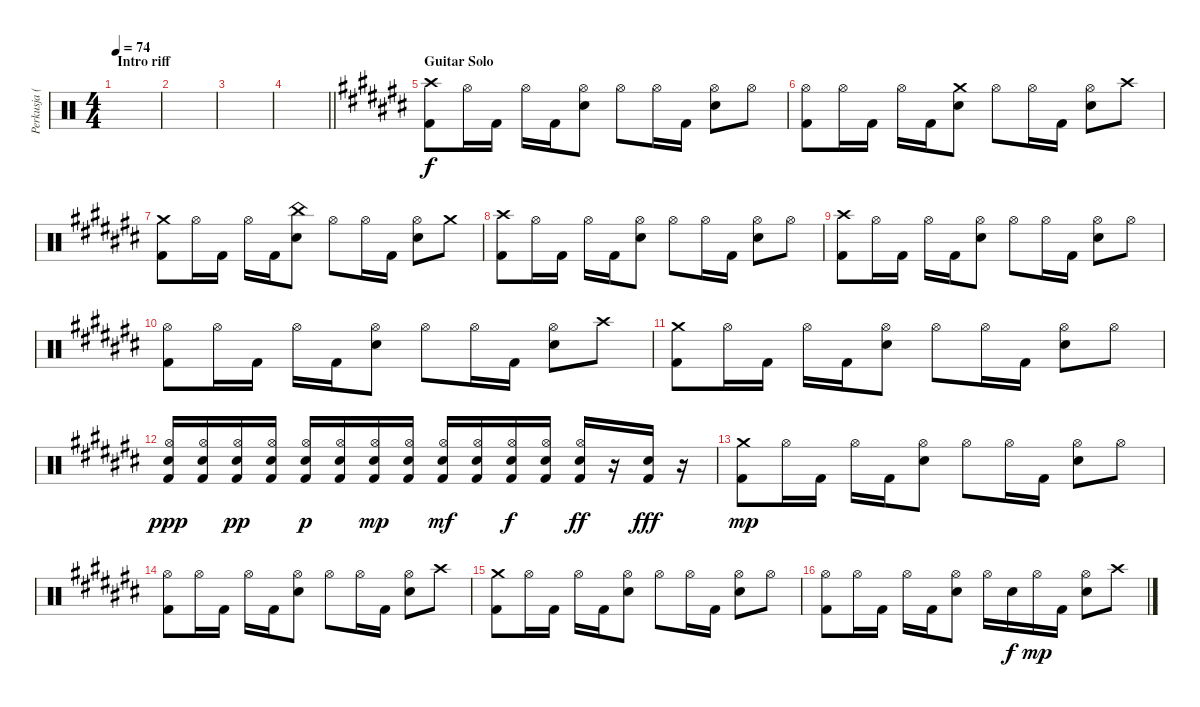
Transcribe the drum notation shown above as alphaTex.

\track ("Perkusja (by FleX)" "Perkusja (") {instrument percussion}
\staff {score}
\articulation defaults
\ts (4 4)
\section ("" "Intro riff")
\tempo 74
\clef neutral
\ks c
|
|
|
\barLineRight lightlight
|
\section ("" "Guitar Solo")
\ks a#minor
("Kick (hit) 2" "Crash high (hit)").8 "Hi-Hat (open)".16 "Kick (hit) 2".16 "Hi-Hat (open)".16 "Kick (hit) 2".16 ("Hi-Hat (open)" "Snare (hit) 2").8 "Hi-Hat (open)".8 "Hi-Hat (open)".16 "Kick (hit) 2".16 ("Hi-Hat (open)" "Snare (hit) 2").8 "Hi-Hat (open)".8 |
("Kick (hit) 2" "Hi-Hat (open)").8 "Hi-Hat (open)".16 "Kick (hit) 2".16 "Hi-Hat (open)".16 "Kick (hit) 2".16 ("Snare (hit) 2" "Crash medium (hit)").8 "Hi-Hat (open)".8 "Hi-Hat (open)".16 "Kick (hit) 2".16 ("Hi-Hat (open)" "Snare (hit) 2").8 "Crash high (hit)".8 |
("Kick (hit) 2" "Crash medium (hit)").8 "Hi-Hat (open)".16 "Kick (hit) 2".16 "Hi-Hat (open)".16 "Kick (hit) 2".16 ("China (hit)" "Snare (hit) 2").8 "Hi-Hat (open)".8 "Hi-Hat (open)".16 "Kick (hit) 2".16 ("Hi-Hat (open)" "Snare (hit) 2").8 "Crash medium (hit)".8 |
("Kick (hit) 2" "Crash high (hit)").8 "Hi-Hat (open)".16 "Kick (hit) 2".16 "Hi-Hat (open)".16 "Kick (hit) 2".16 ("Hi-Hat (open)" "Snare (hit) 2").8 "Hi-Hat (open)".8 "Hi-Hat (open)".16 "Kick (hit) 2".16 ("Hi-Hat (open)" "Snare (hit) 2").8 "Hi-Hat (open)".8 |
("Kick (hit) 2" "Crash high (hit)").8 "Hi-Hat (open)".16 "Kick (hit) 2".16 "Hi-Hat (open)".16 "Kick (hit) 2".16 ("Hi-Hat (open)" "Snare (hit) 2").8 "Hi-Hat (open)".8 "Hi-Hat (open)".16 "Kick (hit) 2".16 ("Hi-Hat (open)" "Snare (hit) 2").8 "Hi-Hat (open)".8 |
("Kick (hit) 2" "Hi-Hat (open)").8 "Hi-Hat (open)".16 "Kick (hit) 2".16 "Hi-Hat (open)".16 "Kick (hit) 2".16 ("Hi-Hat (open)" "Snare (hit) 2").8 "Hi-Hat (open)".8 "Hi-Hat (open)".16 "Kick (hit) 2".16 ("Hi-Hat (open)" "Snare (hit) 2").8 "Crash high (hit)".8 |
("Kick (hit) 2" "Crash medium (hit)").8 "Hi-Hat (open)".16 "Kick (hit) 2".16 "Hi-Hat (open)".16 "Kick (hit) 2".16 ("Hi-Hat (open)" "Snare (hit) 2").8 "Hi-Hat (open)".8 "Hi-Hat (open)".16 "Kick (hit) 2".16 ("Hi-Hat (open)" "Snare (hit) 2").8 "Hi-Hat (open)".8 |
("Kick (hit) 2" "Hi-Hat (open)" "Snare (hit) 2").16{dy ppp} ("Kick (hit) 2" "Hi-Hat (open)" "Snare (hit) 2").16 ("Kick (hit) 2" "Hi-Hat (open)" "Snare (hit) 2").16{dy pp} ("Kick (hit) 2" "Hi-Hat (open)" "Snare (hit) 2").16 ("Kick (hit) 2" "Hi-Hat (open)" "Snare (hit) 2").16{dy p} ("Kick (hit) 2" "Hi-Hat (open)" "Snare (hit) 2").16 ("Kick (hit) 2" "Hi-Hat (open)" "Snare (hit) 2").16{dy mp} ("Kick (hit) 2" "Hi-Hat (open)" "Snare (hit) 2").16 ("Kick (hit) 2" "Hi-Hat (open)" "Snare (hit) 2").16{dy mf} ("Kick (hit) 2" "Hi-Hat (open)" "Snare (hit) 2").16 ("Kick (hit) 2" "Hi-Hat (open)" "Snare (hit) 2").16{dy f} ("Kick (hit) 2" "Hi-Hat (open)" "Snare (hit) 2").16 ("Kick (hit) 2" "Hi-Hat (open)" "Snare (hit) 2").16{dy ff} r.16 ("Kick (hit) 2" "Snare (hit) 2").16{dy fff} r.16 |
("Kick (hit) 2" "Crash medium (hit)").8{dy mp} "Hi-Hat (open)".16 "Kick (hit) 2".16 "Hi-Hat (open)".16 "Kick (hit) 2".16 ("Hi-Hat (open)" "Snare (hit) 2").8 "Hi-Hat (open)".8 "Hi-Hat (open)".16 "Kick (hit) 2".16 ("Hi-Hat (open)" "Snare (hit) 2").8 "Hi-Hat (open)".8 |
("Kick (hit) 2" "Hi-Hat (open)").8 "Hi-Hat (open)".16 "Kick (hit) 2".16 "Hi-Hat (open)".16 "Kick (hit) 2".16 ("Hi-Hat (open)" "Snare (hit) 2").8 "Hi-Hat (open)".8 "Hi-Hat (open)".16 "Kick (hit) 2".16 ("Hi-Hat (open)" "Snare (hit) 2").8 "Crash high (hit)".8 |
("Kick (hit) 2" "Crash medium (hit)").8 "Hi-Hat (open)".16 "Kick (hit) 2".16 "Hi-Hat (open)".16 "Kick (hit) 2".16 ("Hi-Hat (open)" "Snare (hit) 2").8 "Hi-Hat (open)".8 "Hi-Hat (open)".16 "Kick (hit) 2".16 ("Hi-Hat (open)" "Snare (hit) 2").8 "Hi-Hat (open)".8 |
("Kick (hit) 2" "Hi-Hat (open)").8 "Hi-Hat (open)".16 "Kick (hit) 2".16 "Hi-Hat (open)".16 "Kick (hit) 2".16 ("Hi-Hat (open)" "Snare (hit) 2").8 "Hi-Hat (open)".16 "Snare (hit) 2".16{dy f} "Hi-Hat (open)".16{dy mp} "Kick (hit) 2".16 ("Hi-Hat (open)" "Snare (hit) 2").8 "Crash high (hit)".8
